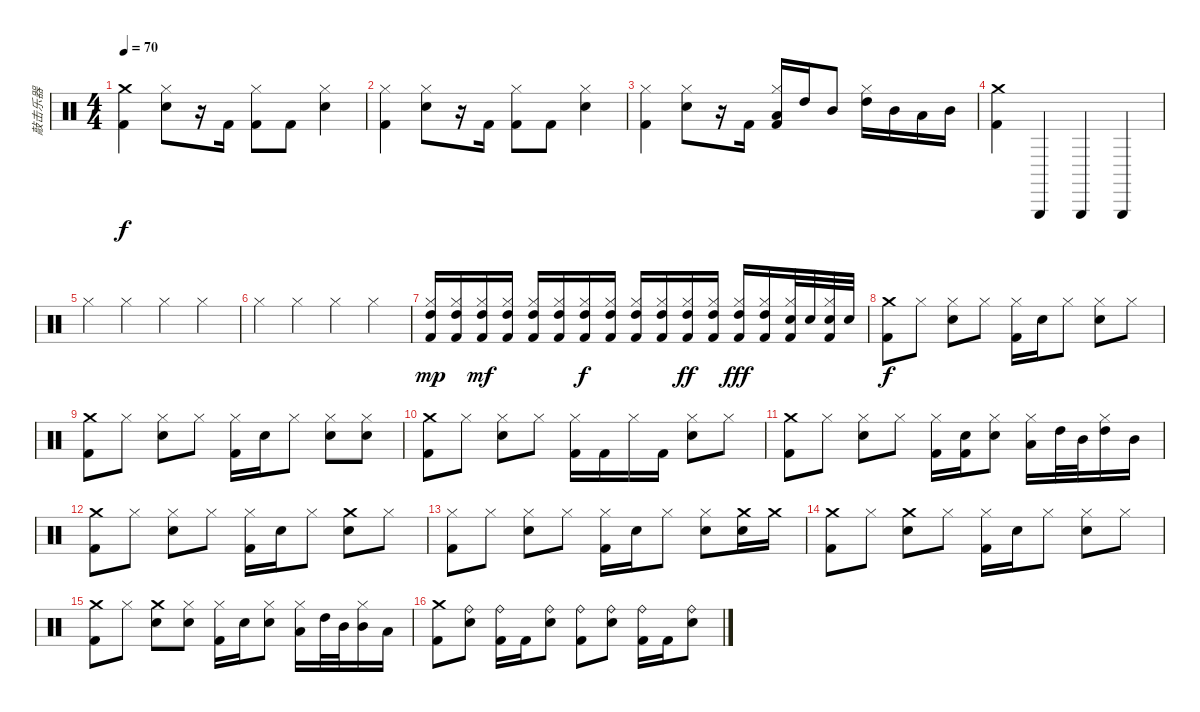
\track ("敲击乐器" "敲击乐器") {instrument percussion}
\staff {score}
\articulation defaults
\ts (4 4)
\tempo 70
\clef neutral
\ks c
("Crash medium (hit)" "Kick (hit) 2").4{dy f} ("Hi-Hat (closed)" "Electric Snare (hit)").8 r.16 "Kick (hit) 2".16 ("Hi-Hat (closed)" "Kick (hit) 2").8 "Kick (hit) 2".8 ("Hi-Hat (closed)" "Electric Snare (hit)").4 |
("Hi-Hat (closed)" "Kick (hit) 2").4 ("Hi-Hat (closed)" "Electric Snare (hit)").8 r.16 "Kick (hit) 2".16 ("Hi-Hat (closed)" "Kick (hit) 2").8 "Kick (hit) 2".8 ("Hi-Hat (closed)" "Electric Snare (hit)").4 |
("Hi-Hat (closed)" "Kick (hit) 2").4 ("Hi-Hat (closed)" "Electric Snare (hit)").8 r.16 "Kick (hit) 2".16 ("Hi-Hat (closed)" "Low Tom (hit)" "Kick (hit) 2").16 "High Tom (hit)".16 "Mid Tom (hit)".8 ("Hi-Hat (closed)" "High Tom (hit)").16 "Mid Tom (hit)".16 "Low Tom (hit)".16 "Mid Tom (hit)".16 |
("Crash medium (hit)" "Kick (hit) 2").4 "Triangle (hit)".4 "Triangle (hit)".4 "Triangle (hit)".4 |
"Hi-Hat (closed)".4 "Hi-Hat (closed)".4 "Hi-Hat (closed)".4 "Hi-Hat (closed)".4 |
"Hi-Hat (closed)".4 "Hi-Hat (closed)".4 "Hi-Hat (closed)".4 "Hi-Hat (closed)".4 |
("Hi-Hat (closed)" "High Tom (hit)" "Kick (hit) 2").16{dy mp} ("Hi-Hat (closed)" "High Tom (hit)" "Kick (hit) 2").16 ("Hi-Hat (closed)" "High Tom (hit)" "Kick (hit) 2").16{dy mf} ("Hi-Hat (closed)" "High Tom (hit)" "Kick (hit) 2").16 ("Hi-Hat (closed)" "High Tom (hit)" "Kick (hit) 2").16 ("Hi-Hat (closed)" "High Tom (hit)" "Kick (hit) 2").16 ("Hi-Hat (closed)" "High Tom (hit)" "Kick (hit) 2").16{dy f} ("Hi-Hat (closed)" "High Tom (hit)" "Kick (hit) 2").16 ("Hi-Hat (closed)" "High Tom (hit)" "Kick (hit) 2").16 ("Hi-Hat (closed)" "High Tom (hit)" "Kick (hit) 2").16 ("Hi-Hat (closed)" "High Tom (hit)" "Kick (hit) 2").16{dy ff} ("Hi-Hat (closed)" "High Tom (hit)" "Kick (hit) 2").16 ("Hi-Hat (closed)" "High Tom (hit)" "Kick (hit) 2").16{dy fff} ("Hi-Hat (closed)" "High Tom (hit)" "Kick (hit) 2").16 ("Hi-Hat (closed)" "Electric Snare (hit)" "Kick (hit) 2").32 "Electric Snare (hit)".32 ("Hi-Hat (closed)" "Electric Snare (hit)" "Kick (hit) 2").32 "Electric Snare (hit)".32 |
("Crash medium (hit)" "Kick (hit) 2").8{dy f} "Hi-Hat (closed)".8 ("Hi-Hat (closed)" "Electric Snare (hit)").8 "Hi-Hat (closed)".8 ("Hi-Hat (closed)" "Kick (hit) 2").16 "Electric Snare (hit)".16 "Hi-Hat (closed)".8 ("Hi-Hat (closed)" "Electric Snare (hit)").8 "Hi-Hat (closed)".8 |
("Crash medium (hit)" "Kick (hit) 2").8 "Hi-Hat (closed)".8 ("Hi-Hat (closed)" "Electric Snare (hit)").8 "Hi-Hat (closed)".8 ("Hi-Hat (closed)" "Kick (hit) 2").16 "Electric Snare (hit)".16 "Hi-Hat (closed)".8 ("Hi-Hat (closed)" "Electric Snare (hit)").8 ("Hi-Hat (closed)" "Electric Snare (hit)").8 |
("Crash medium (hit)" "Kick (hit) 2").8 "Hi-Hat (closed)".8 ("Hi-Hat (closed)" "Electric Snare (hit)").8 "Hi-Hat (closed)".8 ("Hi-Hat (closed)" "Kick (hit) 2").16 "Kick (hit) 2".16 "Hi-Hat (closed)".16 "Kick (hit) 2".16 ("Hi-Hat (closed)" "Electric Snare (hit)").8 "Hi-Hat (closed)".8 |
("Crash medium (hit)" "Kick (hit) 2").8 "Hi-Hat (closed)".8 ("Hi-Hat (closed)" "Electric Snare (hit)").8 "Hi-Hat (closed)".8 ("Hi-Hat (closed)" "Kick (hit) 2").16 ("Electric Snare (hit)" "Kick (hit) 2").16 ("Hi-Hat (closed)" "Electric Snare (hit)").8 ("Hi-Hat (closed)" "Low Tom (hit)").16 "High Tom (hit)".32 "Mid Tom (hit)".32 ("Hi-Hat (closed)" "High Tom (hit)").16 "Mid Tom (hit)".16 |
("Crash medium (hit)" "Kick (hit) 2").8 "Hi-Hat (closed)".8 ("Hi-Hat (closed)" "Electric Snare (hit)").8 "Hi-Hat (closed)".8 ("Hi-Hat (closed)" "Kick (hit) 2").16 "Electric Snare (hit)".16 "Hi-Hat (closed)".8 ("Crash medium (hit)" "Electric Snare (hit)").8 "Hi-Hat (closed)".8 |
("Hi-Hat (closed)" "Kick (hit) 2").8 "Hi-Hat (closed)".8 ("Hi-Hat (closed)" "Electric Snare (hit)").8 "Hi-Hat (closed)".8 ("Hi-Hat (closed)" "Kick (hit) 2").16 "Electric Snare (hit)".16 "Hi-Hat (closed)".8 ("Hi-Hat (closed)" "Electric Snare (hit)").8 ("Crash medium (hit)" "Electric Snare (hit)").16 "Crash medium (hit)".16 |
("Crash medium (hit)" "Kick (hit) 2").8 "Hi-Hat (closed)".8 ("Crash medium (hit)" "Electric Snare (hit)").8 "Hi-Hat (closed)".8 ("Hi-Hat (closed)" "Kick (hit) 2").16 "Electric Snare (hit)".16 "Hi-Hat (closed)".8 ("Hi-Hat (closed)" "Electric Snare (hit)").8 "Hi-Hat (closed)".8 |
("Crash medium (hit)" "Kick (hit) 2").8 "Hi-Hat (closed)".8 ("Crash medium (hit)" "Electric Snare (hit)").8 ("Hi-Hat (closed)" "Electric Snare (hit)").8 ("Hi-Hat (closed)" "Kick (hit) 2").16 "Electric Snare (hit)".16 ("Hi-Hat (closed)" "Electric Snare (hit)").8 ("Hi-Hat (closed)" "Low Tom (hit)").16 "High Tom (hit)".32 "Mid Tom (hit)".32 ("Hi-Hat (closed)" "Mid Tom (hit)").16 "Low Tom (hit)".16 |
("Crash medium (hit)" "Kick (hit) 2").8 ("Ride (bell)" "Electric Snare (hit)").8 ("Ride (bell)" "Kick (hit) 2").16 "Kick (hit) 2".16 ("Ride (bell)" "Electric Snare (hit)").8 ("Ride (bell)" "Kick (hit) 2").8 ("Ride (bell)" "Electric Snare (hit)").8 ("Ride (bell)" "Kick (hit) 2").16 "Kick (hit) 2".16 ("Ride (bell)" "Electric Snare (hit)").8
